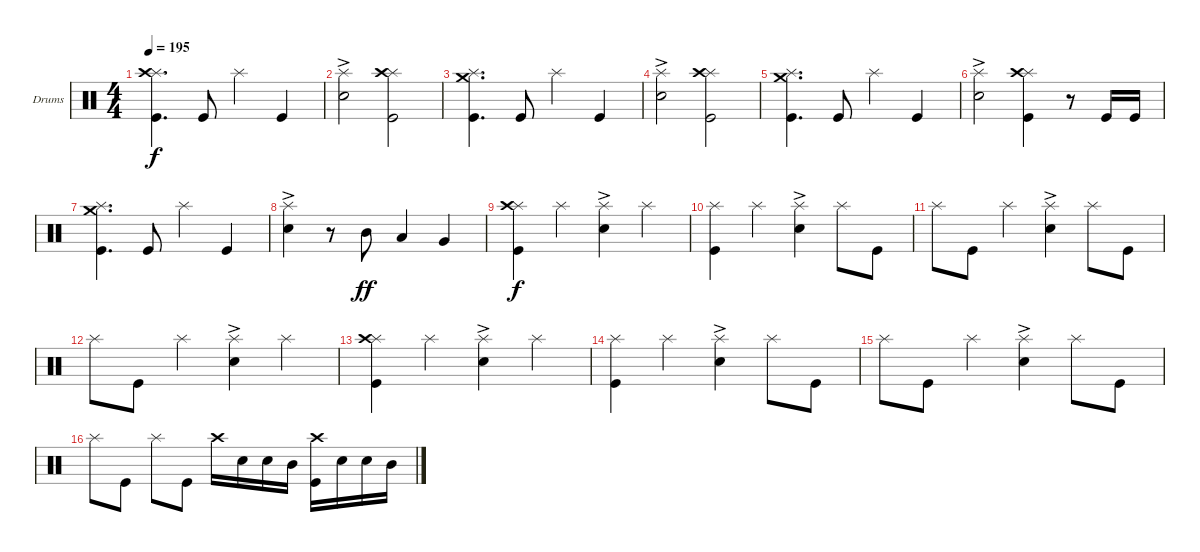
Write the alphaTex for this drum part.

\defaultSystemsLayout 4
\bracketExtendMode groupsimilarinstruments
\firstSystemTrackNameOrientation horizontal
\otherSystemsTrackNameOrientation horizontal
\track ("Drumkit" "Drums") {instrument percussion}
\staff {score}
\articulation defaults
\ts (4 4)
\tempo 195
\clef neutral
\ks c
("Kick (hit)" "Splash (hit)" "Crash high (hit)").4{d dy f} "Kick (hit)".8 "Splash (hit)".4 "Kick (hit)".4 |
("Splash (hit)" "Snare (hit) 2"{ac}).2 ("Kick (hit)" "Splash (hit)" "Crash high (hit)").2 |
("Kick (hit)" "Splash (hit)" "Crash medium (hit)").4{d} "Kick (hit)".8 "Splash (hit)".4 "Kick (hit)".4 |
("Splash (hit)" "Snare (hit) 2"{ac}).2 ("Kick (hit)" "Splash (hit)" "Crash high (hit)").2 |
("Kick (hit)" "Splash (hit)" "Crash medium (hit)").4{d} "Kick (hit)".8 "Splash (hit)".4 "Kick (hit)".4 |
("Splash (hit)" "Snare (hit) 2"{ac}).2 ("Kick (hit)" "Splash (hit)" "Crash high (hit)").4 r.8 "Kick (hit)".16 "Kick (hit)".16 |
("Kick (hit)" "Splash (hit)" "Crash medium (hit)").4{d} "Kick (hit)".8 "Splash (hit)".4 "Kick (hit)".4 |
("Splash (hit)" "Snare (hit) 2"{ac}).4 r.8 "Mid Tom (hit)".8{dy ff} "Low Tom (hit)".4 "Very Low Tom (hit)".4 |
("Kick (hit)" "Splash (hit)" "Crash high (hit)").4{dy f} "Splash (hit)".4 ("Snare (hit) 2"{ac} "Splash (hit)").4 "Splash (hit)".4 |
("Kick (hit)" "Splash (hit)").4 "Splash (hit)".4 ("Snare (hit) 2"{ac} "Splash (hit)").4 "Splash (hit)".8 "Kick (hit)".8 |
"Splash (hit)".8 "Kick (hit)".8 "Splash (hit)".4 ("Splash (hit)" "Snare (hit) 2"{ac}).4 "Splash (hit)".8 "Kick (hit)".8 |
"Splash (hit)".8 "Kick (hit)".8 "Splash (hit)".4 ("Splash (hit)" "Snare (hit) 2"{ac}).4 "Splash (hit)".4 |
("Kick (hit)" "Splash (hit)" "Crash high (hit)").4 "Splash (hit)".4 ("Snare (hit) 2"{ac} "Splash (hit)").4 "Splash (hit)".4 |
("Kick (hit)" "Splash (hit)").4 "Splash (hit)".4 ("Snare (hit) 2"{ac} "Splash (hit)").4 "Splash (hit)".8 "Kick (hit)".8 |
"Splash (hit)".8 "Kick (hit)".8 "Splash (hit)".4 ("Splash (hit)" "Snare (hit) 2"{ac}).4 "Splash (hit)".8 "Kick (hit)".8 |
"Splash (hit)".8 "Kick (hit)".8 "Splash (hit)".8 "Kick (hit)".8 "Crash high (hit)".16 "Snare (hit) 2".16 "Snare (hit) 2".16 "Mid Tom (hit)".16 ("Kick (hit)" "Crash high (hit)").16 "Snare (hit) 2".16 "Snare (hit) 2".16 "Mid Tom (hit)".16
